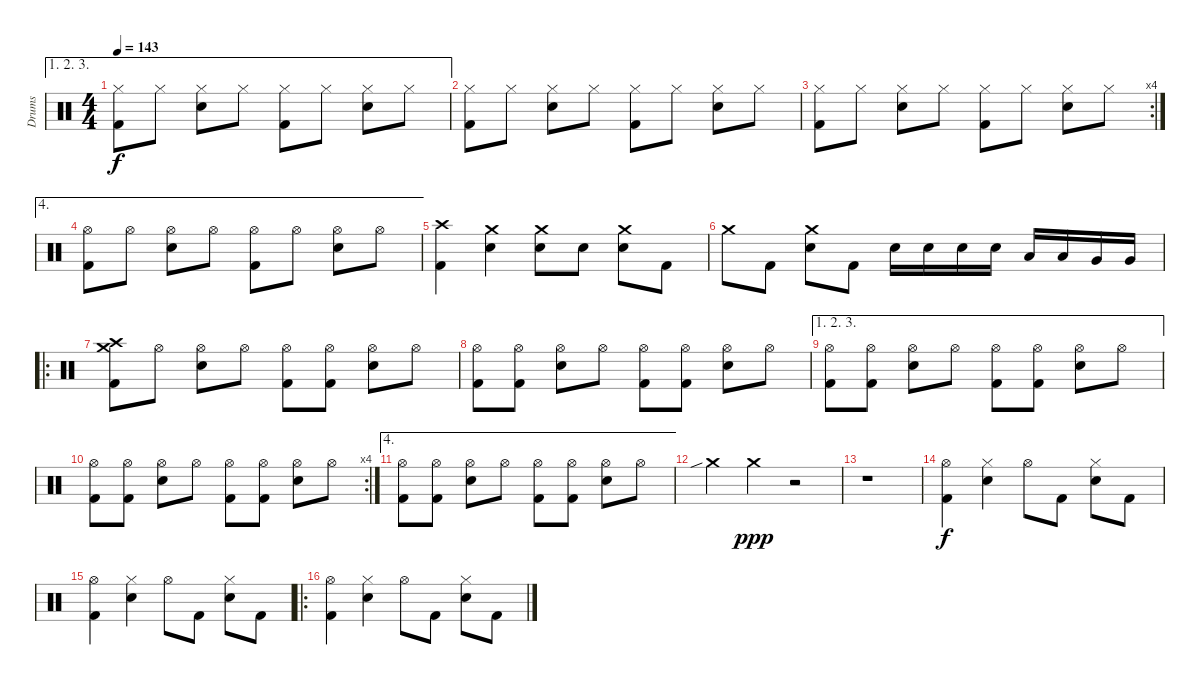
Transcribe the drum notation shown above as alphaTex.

\track ("Drums" "Drums") {instrument percussion}
\staff {score}
\articulation defaults
\ae (1 2 3)
\ts (4 4)
\tempo 143
\clef neutral
\ks c
("Hi-Hat (closed)" "Kick (hit) 2").8{dy f} "Hi-Hat (closed)".8 ("Hi-Hat (closed)" "Electric Snare (hit)").8 "Hi-Hat (closed)".8 ("Hi-Hat (closed)" "Kick (hit) 2").8 "Hi-Hat (closed)".8 ("Hi-Hat (closed)" "Electric Snare (hit)").8 "Hi-Hat (closed)".8 |
("Hi-Hat (closed)" "Kick (hit) 2").8 "Hi-Hat (closed)".8 ("Hi-Hat (closed)" "Electric Snare (hit)").8 "Hi-Hat (closed)".8 ("Hi-Hat (closed)" "Kick (hit) 2").8 "Hi-Hat (closed)".8 ("Hi-Hat (closed)" "Electric Snare (hit)").8 "Hi-Hat (closed)".8 |
\rc 4
("Hi-Hat (closed)" "Kick (hit) 2").8 "Hi-Hat (closed)".8 ("Hi-Hat (closed)" "Electric Snare (hit)").8 "Hi-Hat (closed)".8 ("Hi-Hat (closed)" "Kick (hit) 2").8 "Hi-Hat (closed)".8 ("Hi-Hat (closed)" "Electric Snare (hit)").8 "Hi-Hat (closed)".8 |
\ae 4
("Hi-Hat (open)" "Kick (hit) 2").8 "Hi-Hat (open)".8 ("Hi-Hat (open)" "Electric Snare (hit)").8 "Hi-Hat (open)".8 ("Hi-Hat (open)" "Kick (hit) 2").8 "Hi-Hat (open)".8 ("Hi-Hat (open)" "Electric Snare (hit)").8 "Hi-Hat (open)".8 |
("Crash high (hit)" "Kick (hit) 2").4 ("Crash medium (hit)" "Snare (hit) 2").4 ("Crash medium (hit)" "Snare (hit) 2").8 "Snare (hit) 2".8 ("Crash medium (hit)" "Snare (hit) 2").8 "Kick (hit) 2".8 |
"Crash medium (hit)".8 "Kick (hit) 2".8 ("Crash medium (hit)" "Snare (hit) 2").8 "Kick (hit) 2".8 "Snare (hit) 2".16 "Snare (hit) 2".16 "Snare (hit) 2".16 "Snare (hit) 2".16 "Low Tom (hit)".16 "Low Tom (hit)".16 "Very Low Tom (hit)".16 "Very Low Tom (hit)".16 |
\ro
("Crash high (hit)" "Crash medium (hit)" "Kick (hit) 2").8 "Hi-Hat (open)".8 ("Hi-Hat (open)" "Snare (hit) 2").8 "Hi-Hat (open)".8 ("Hi-Hat (open)" "Kick (hit) 2").8 ("Hi-Hat (open)" "Kick (hit) 2").8 ("Hi-Hat (open)" "Snare (hit) 2").8 "Hi-Hat (open)".8 |
("Hi-Hat (open)" "Kick (hit) 2").8 ("Hi-Hat (open)" "Kick (hit) 2").8 ("Hi-Hat (open)" "Snare (hit) 2").8 "Hi-Hat (open)".8 ("Hi-Hat (open)" "Kick (hit) 2").8 ("Hi-Hat (open)" "Kick (hit) 2").8 ("Hi-Hat (open)" "Snare (hit) 2").8 "Hi-Hat (open)".8 |
\ae (1 2 3)
("Hi-Hat (open)" "Kick (hit) 2").8 ("Hi-Hat (open)" "Kick (hit) 2").8 ("Hi-Hat (open)" "Snare (hit) 2").8 "Hi-Hat (open)".8 ("Hi-Hat (open)" "Kick (hit) 2").8 ("Hi-Hat (open)" "Kick (hit) 2").8 ("Hi-Hat (open)" "Snare (hit) 2").8 "Hi-Hat (open)".8 |
\rc 4
("Hi-Hat (open)" "Kick (hit) 2").8 ("Hi-Hat (open)" "Kick (hit) 2").8 ("Hi-Hat (open)" "Snare (hit) 2").8 "Hi-Hat (open)".8 ("Hi-Hat (open)" "Kick (hit) 2").8 ("Hi-Hat (open)" "Kick (hit) 2").8 ("Hi-Hat (open)" "Snare (hit) 2").8 "Hi-Hat (open)".8 |
\ae 4
("Hi-Hat (open)" "Kick (hit) 2").8 ("Hi-Hat (open)" "Kick (hit) 2").8 ("Hi-Hat (open)" "Snare (hit) 2").8 "Hi-Hat (open)".8 ("Hi-Hat (open)" "Kick (hit) 2").8 ("Hi-Hat (open)" "Kick (hit) 2").8 ("Hi-Hat (open)" "Snare (hit) 2").8 "Hi-Hat (open)".8 |
"Crash medium (hit)"{sib}.4 "Crash medium (hit)".4{dy ppp} r.2 |
r.1 |
("Hi-Hat (open)" "Kick (hit) 2").4{dy f} ("Hi-Hat (closed)" "Electric Snare (hit)").4 "Hi-Hat (open)".8 "Kick (hit) 2".8 ("Hi-Hat (closed)" "Electric Snare (hit)").8 "Kick (hit) 2".8 |
("Hi-Hat (open)" "Kick (hit) 2").4 ("Hi-Hat (closed)" "Electric Snare (hit)").4 "Hi-Hat (open)".8 "Kick (hit) 2".8 ("Hi-Hat (closed)" "Electric Snare (hit)").8 "Kick (hit) 2".8 |
\ro
("Hi-Hat (open)" "Kick (hit) 2").4 ("Hi-Hat (closed)" "Electric Snare (hit)").4 "Hi-Hat (open)".8 "Kick (hit) 2".8 ("Hi-Hat (closed)" "Electric Snare (hit)").8 "Kick (hit) 2".8
